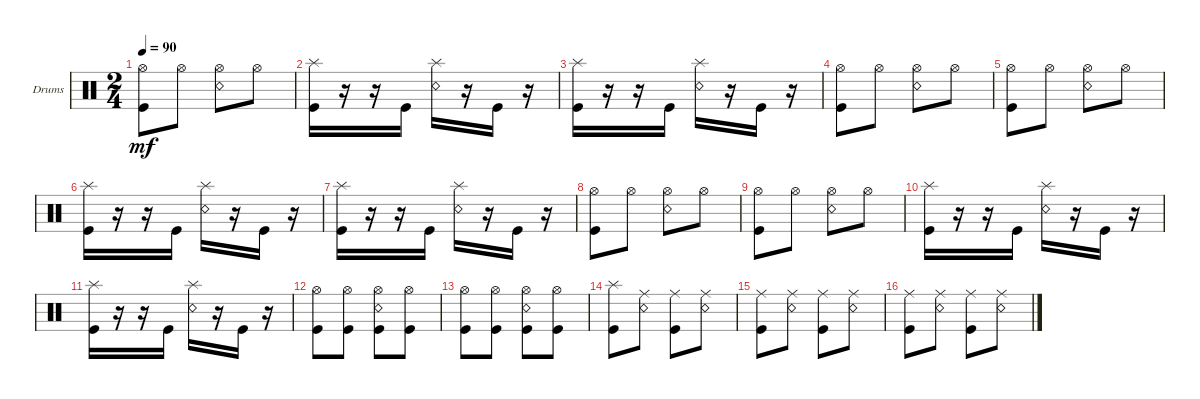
\defaultSystemsLayout 4
\bracketExtendMode groupsimilarinstruments
\firstSystemTrackNameOrientation horizontal
\otherSystemsTrackNameOrientation horizontal
\track ("Drumkit" "Drums") {instrument percussion}
\staff {score}
\articulation defaults
\ts (2 4)
\tempo 90
\clef neutral
\ks c
("Hi-Hat (open)" "Kick (hit)").8{dy mf} "Hi-Hat (open)".8 ("Hi-Hat (open)" "Snare (rim shot)").8 "Hi-Hat (open)".8 |
("Splash (hit)" "Kick (hit)").16 r.16 r.16 "Kick (hit)".16 ("Snare (rim shot)" "Splash (hit)").16 r.16 "Kick (hit)".16 r.16 |
("Splash (hit)" "Kick (hit)").16 r.16 r.16 "Kick (hit)".16 ("Snare (rim shot)" "Splash (hit)").16 r.16 "Kick (hit)".16 r.16 |
("Hi-Hat (open)" "Kick (hit)").8 "Hi-Hat (open)".8 ("Hi-Hat (open)" "Snare (rim shot)").8 "Hi-Hat (open)".8 |
("Hi-Hat (open)" "Kick (hit)").8 "Hi-Hat (open)".8 ("Hi-Hat (open)" "Snare (rim shot)").8 "Hi-Hat (open)".8 |
("Splash (hit)" "Kick (hit)").16 r.16 r.16 "Kick (hit)".16 ("Snare (rim shot)" "Splash (hit)").16 r.16 "Kick (hit)".16 r.16 |
("Splash (hit)" "Kick (hit)").16 r.16 r.16 "Kick (hit)".16 ("Snare (rim shot)" "Splash (hit)").16 r.16 "Kick (hit)".16 r.16 |
("Hi-Hat (open)" "Kick (hit)").8 "Hi-Hat (open)".8 ("Hi-Hat (open)" "Snare (rim shot)").8 "Hi-Hat (open)".8 |
("Hi-Hat (open)" "Kick (hit)").8 "Hi-Hat (open)".8 ("Hi-Hat (open)" "Snare (rim shot)").8 "Hi-Hat (open)".8 |
("Splash (hit)" "Kick (hit)").16 r.16 r.16 "Kick (hit)".16 ("Snare (rim shot)" "Splash (hit)").16 r.16 "Kick (hit)".16 r.16 |
("Splash (hit)" "Kick (hit)").16 r.16 r.16 "Kick (hit)".16 ("Snare (rim shot)" "Splash (hit)").16 r.16 "Kick (hit)".16 r.16 |
("Hi-Hat (open)" "Kick (hit)").8 ("Hi-Hat (open)" "Kick (hit)").8 ("Hi-Hat (open)" "Snare (rim shot)" "Kick (hit)").8 ("Hi-Hat (open)" "Kick (hit)").8 |
("Hi-Hat (open)" "Kick (hit)").8 ("Hi-Hat (open)" "Kick (hit)").8 ("Hi-Hat (open)" "Snare (rim shot)" "Kick (hit)").8 ("Hi-Hat (open)" "Kick (hit)").8 |
("Kick (hit)" "Splash (hit)").8 ("Ride (middle)" "Snare (rim shot)").8 ("Ride (middle)" "Kick (hit)").8 ("Ride (middle)" "Snare (rim shot)").8 |
("Kick (hit)" "Ride (middle)").8 ("Ride (middle)" "Snare (rim shot)").8 ("Ride (middle)" "Kick (hit)").8 ("Ride (middle)" "Snare (rim shot)").8 |
("Kick (hit)" "Ride (middle)").8 ("Ride (middle)" "Snare (rim shot)").8 ("Ride (middle)" "Kick (hit)").8 ("Ride (middle)" "Snare (rim shot)").8
